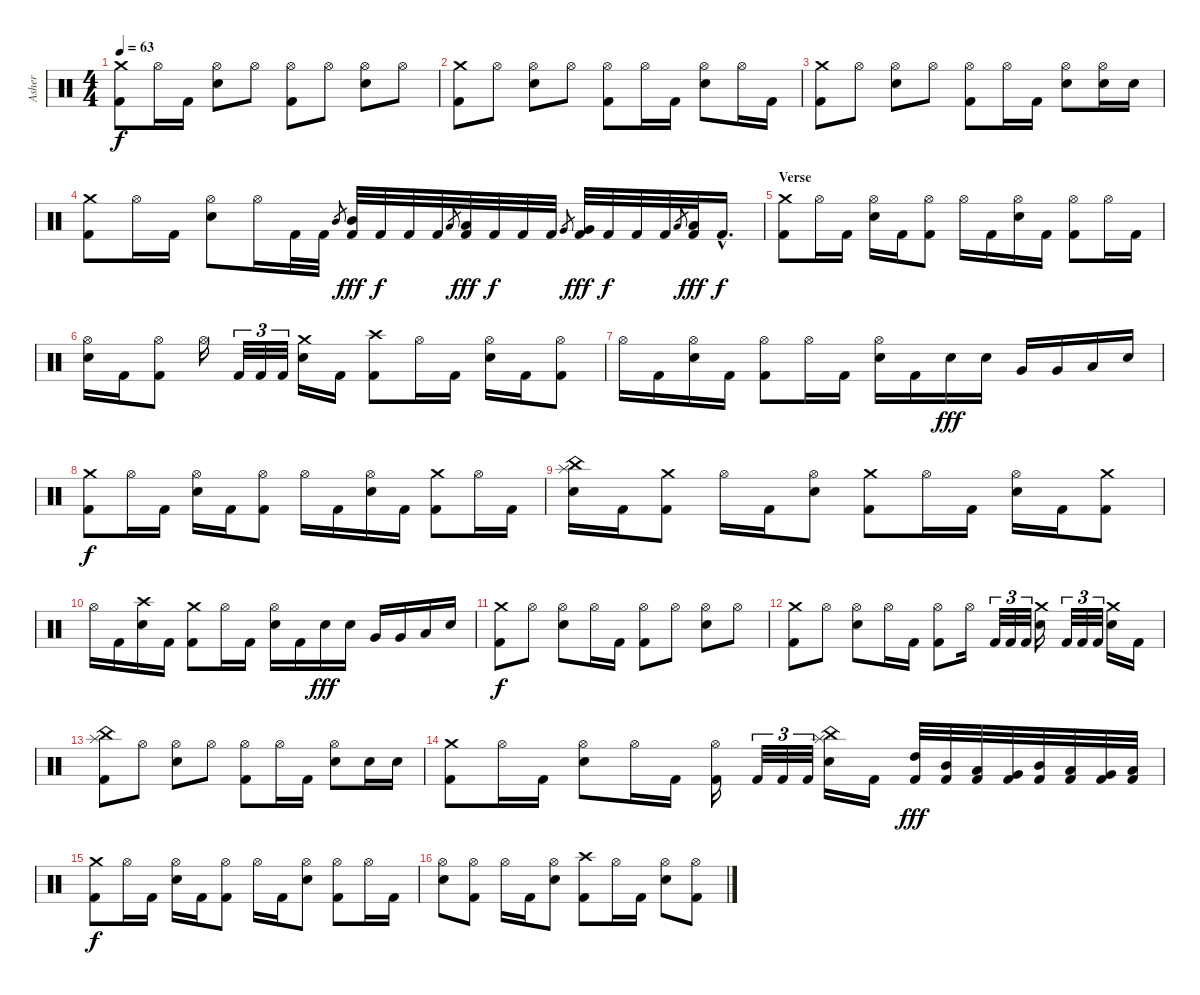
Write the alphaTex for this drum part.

\track ("Asher" "Asher") {instrument percussion}
\staff {score}
\articulation defaults
\ts (4 4)
\tempo 63
\clef neutral
\ks c
("Crash medium (hit)" "Kick (hit) 2").8{dy f} "Hi-Hat (open)".16 "Kick (hit) 2".16 ("Hi-Hat (open)" "Electric Snare (hit)").8 "Hi-Hat (open)".8 ("Hi-Hat (open)" "Kick (hit) 2").8 "Hi-Hat (open)".8 ("Hi-Hat (open)" "Electric Snare (hit)").8 "Hi-Hat (open)".8 |
("Crash medium (hit)" "Kick (hit) 2").8 "Hi-Hat (open)".8 ("Hi-Hat (open)" "Electric Snare (hit)").8 "Hi-Hat (open)".8 ("Hi-Hat (open)" "Kick (hit) 2").8 "Hi-Hat (open)".16 "Kick (hit) 2".16 ("Hi-Hat (open)" "Electric Snare (hit)").8 "Hi-Hat (open)".16 "Kick (hit) 2".16 |
("Crash medium (hit)" "Kick (hit) 2").8 "Hi-Hat (open)".8 ("Hi-Hat (open)" "Electric Snare (hit)").8 "Hi-Hat (open)".8 ("Hi-Hat (open)" "Kick (hit) 2").8 "Hi-Hat (open)".16 "Kick (hit) 2".16 ("Hi-Hat (open)" "Electric Snare (hit)").8 ("Hi-Hat (open)" "Electric Snare (hit)").16 "Electric Snare (hit)".16 |
("Crash medium (hit)" "Kick (hit) 2").8 "Hi-Hat (open)".16 "Kick (hit) 2".16 ("Hi-Hat (open)" "Electric Snare (hit)").8 "Hi-Hat (open)".16 "Kick (hit) 2".32 "Kick (hit) 2".32 "Mid Tom (hit)".8{gr} ("Mid Tom (hit)" "Kick (hit) 2").32{dy fff} "Kick (hit) 2".32{dy f} "Kick (hit) 2".32 "Kick (hit) 2".32 "Low Tom (hit)".8{gr} ("Low Tom (hit)" "Kick (hit) 2").32{dy fff} "Kick (hit) 2".32{dy f} "Kick (hit) 2".32 "Kick (hit) 2".32 "Very Low Tom (hit)".8{gr} ("Very Low Tom (hit)" "Kick (hit) 2").32{dy fff} "Kick (hit) 2".32{dy f} "Kick (hit) 2".32 "Kick (hit) 2".32 "Low Floor Tom (hit)".8{gr} ("Low Floor Tom (hit)" "Kick (hit) 2").32{dy fff} "Kick (hit) 2"{hac}.16{d dy f} |
\section ("" "Verse ")
("Crash medium (hit)" "Kick (hit) 2").8 "Hi-Hat (open)".16 "Kick (hit) 2".16 ("Hi-Hat (open)" "Electric Snare (hit)").16 "Kick (hit) 2".16 ("Hi-Hat (open)" "Kick (hit) 2").8 "Hi-Hat (open)".16 "Kick (hit) 2".16 ("Hi-Hat (open)" "Electric Snare (hit)").16 "Kick (hit) 2".16 ("Hi-Hat (open)" "Kick (hit) 2").8 "Hi-Hat (open)".16 "Kick (hit) 2".16 |
("Hi-Hat (open)" "Electric Snare (hit)").16 "Kick (hit) 2".16 ("Hi-Hat (open)" "Kick (hit) 2").8 "Hi-Hat (open)".16 "Kick (hit) 2".32{tu (3 2)} "Kick (hit) 2".32{tu (3 2)} "Kick (hit) 2".32{tu (3 2)} ("Crash medium (hit)" "Electric Snare (hit)").16 "Kick (hit) 2".16 ("Crash high (hit)" "Kick (hit) 2").8 "Hi-Hat (open)".16 "Kick (hit) 2".16 ("Hi-Hat (open)" "Electric Snare (hit)").16 "Kick (hit) 2".16 ("Hi-Hat (open)" "Kick (hit) 2").8 |
"Hi-Hat (open)".16 "Kick (hit) 2".16 ("Hi-Hat (open)" "Electric Snare (hit)").16 "Kick (hit) 2".16 ("Hi-Hat (open)" "Kick (hit) 2").8 "Hi-Hat (open)".16 "Kick (hit) 2".16 ("Hi-Hat (open)" "Electric Snare (hit)").16 "Kick (hit) 2".16 "Electric Snare (hit)".16{dy fff} "Electric Snare (hit)".16 "Very Low Tom (hit)".16 "Very Low Tom (hit)".16 "Low Floor Tom (hit)".16 "Electric Snare (hit)".16 |
("Crash medium (hit)" "Kick (hit) 2").8{dy f} "Hi-Hat (open)".16 "Kick (hit) 2".16 ("Hi-Hat (open)" "Electric Snare (hit)").16 "Kick (hit) 2".16 ("Hi-Hat (open)" "Kick (hit) 2").8 "Hi-Hat (open)".16 "Kick (hit) 2".16 ("Hi-Hat (open)" "Electric Snare (hit)").16 "Kick (hit) 2".16 ("Crash medium (hit)" "Kick (hit) 2").8 "Hi-Hat (open)".16 "Kick (hit) 2".16 |
("China (hit)" "Splash (hit)" "Electric Snare (hit)").16 "Kick (hit) 2".16 ("Crash medium (hit)" "Kick (hit) 2").8 "Hi-Hat (open)".16 "Kick (hit) 2".16 ("Hi-Hat (open)" "Electric Snare (hit)").8 ("Crash medium (hit)" "Kick (hit) 2").8 "Hi-Hat (open)".16 "Kick (hit) 2".16 ("Hi-Hat (open)" "Electric Snare (hit)").16 "Kick (hit) 2".16 ("Crash medium (hit)" "Kick (hit) 2").8 |
"Hi-Hat (open)".16 "Kick (hit) 2".16 ("Crash high (hit)" "Electric Snare (hit)").16 "Kick (hit) 2".16 ("Crash medium (hit)" "Kick (hit) 2").8 "Hi-Hat (open)".16 "Kick (hit) 2".16 ("Hi-Hat (open)" "Electric Snare (hit)").16 "Kick (hit) 2".16 "Electric Snare (hit)".16{dy fff} "Electric Snare (hit)".16 "Very Low Tom (hit)".16 "Very Low Tom (hit)".16 "Low Floor Tom (hit)".16 "Electric Snare (hit)".16 |
("Crash medium (hit)" "Kick (hit) 2").8{dy f} "Hi-Hat (open)".8 ("Hi-Hat (open)" "Electric Snare (hit)").8 "Hi-Hat (open)".16 "Kick (hit) 2".16 ("Hi-Hat (open)" "Kick (hit) 2").8 "Hi-Hat (open)".8 ("Hi-Hat (open)" "Electric Snare (hit)").8 "Hi-Hat (open)".8 |
("Crash medium (hit)" "Kick (hit) 2").8 "Hi-Hat (open)".8 ("Hi-Hat (open)" "Electric Snare (hit)").8 "Hi-Hat (open)".16 "Kick (hit) 2".16 ("Hi-Hat (open)" "Kick (hit) 2").8 "Hi-Hat (open)".16 "Kick (hit) 2".32{tu (3 2)} "Kick (hit) 2".32{tu (3 2)} "Kick (hit) 2".32{tu (3 2)} ("Crash medium (hit)" "Electric Snare (hit)").16 "Kick (hit) 2".32{tu (3 2)} "Kick (hit) 2".32{tu (3 2)} "Kick (hit) 2".32{tu (3 2)} ("Crash medium (hit)" "Electric Snare (hit)").16 "Kick (hit) 2".16 |
("Splash (hit)" "China (hit)" "Kick (hit) 2").8 "Hi-Hat (open)".8 ("Hi-Hat (open)" "Electric Snare (hit)").8 "Hi-Hat (open)".8 ("Hi-Hat (open)" "Kick (hit) 2").8 "Hi-Hat (open)".16 "Kick (hit) 2".16 ("Hi-Hat (open)" "Electric Snare (hit)").8 "Electric Snare (hit)".16 "Electric Snare (hit)".16 |
("Crash medium (hit)" "Kick (hit) 2").8 "Hi-Hat (open)".16 "Kick (hit) 2".16 ("Hi-Hat (open)" "Electric Snare (hit)").8 "Hi-Hat (open)".16 "Kick (hit) 2".16 ("Hi-Hat (open)" "Kick (hit) 2").16 "Kick (hit) 2".32{tu (3 2)} "Kick (hit) 2".32{tu (3 2)} "Kick (hit) 2".32{tu (3 2)} ("Splash (hit)" "China (hit)" "Electric Snare (hit)").16 "Kick (hit) 2".16 ("High Tom (hit)" "Kick (hit) 2").32{dy fff} ("Mid Tom (hit)" "Kick (hit) 2").32 ("Low Tom (hit)" "Kick (hit) 2").32 ("Very Low Tom (hit)" "Kick (hit) 2").32 ("Mid Tom (hit)" "Kick (hit) 2").32 ("Low Tom (hit)" "Kick (hit) 2").32 ("Very Low Tom (hit)" "Kick (hit) 2").32 ("Low Floor Tom (hit)" "Kick (hit) 2").32 |
("Crash medium (hit)" "Kick (hit) 2").8{dy f} "Hi-Hat (open)".16 "Kick (hit) 2".16 ("Hi-Hat (open)" "Electric Snare (hit)").16 "Kick (hit) 2".16 ("Hi-Hat (open)" "Kick (hit) 2").8 "Hi-Hat (open)".16 "Kick (hit) 2".16 ("Hi-Hat (open)" "Electric Snare (hit)").8 ("Hi-Hat (open)" "Kick (hit) 2").8 "Hi-Hat (open)".16 "Kick (hit) 2".16 |
("Hi-Hat (open)" "Electric Snare (hit)").8 ("Hi-Hat (open)" "Kick (hit) 2").8 "Hi-Hat (open)".16 "Kick (hit) 2".16 ("Hi-Hat (open)" "Electric Snare (hit)").8 ("Crash high (hit)" "Kick (hit) 2").8 "Hi-Hat (open)".16 "Kick (hit) 2".16 ("Hi-Hat (open)" "Electric Snare (hit)").8 ("Hi-Hat (open)" "Kick (hit) 2").8
